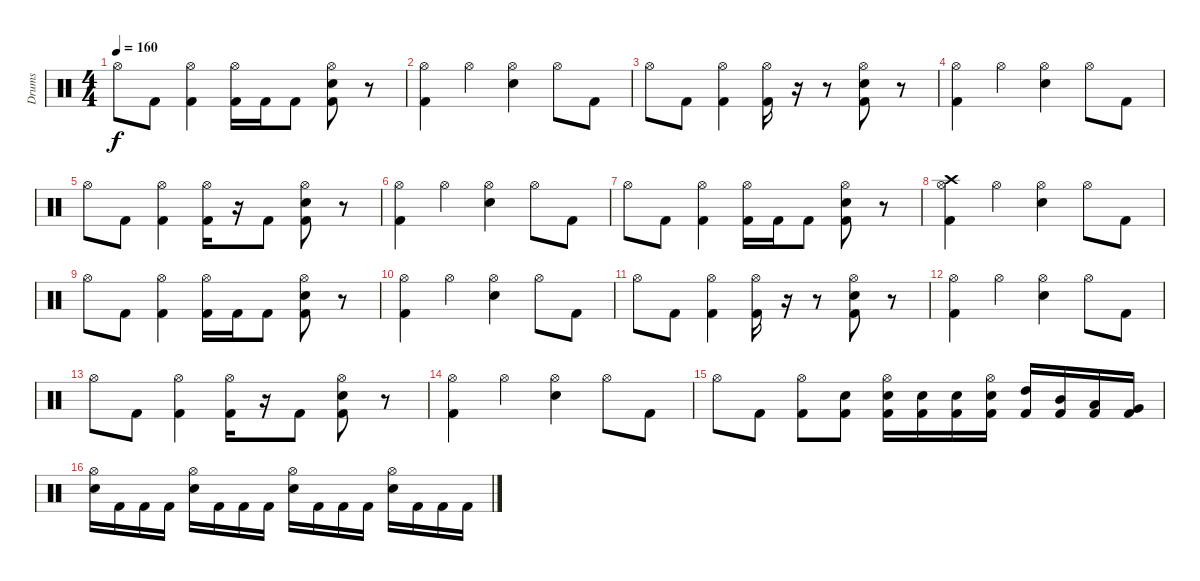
\track ("Drums" "Drums") {instrument percussion}
\staff {score}
\articulation defaults
\ts (4 4)
\tempo 160
\clef neutral
\ks c "Hi-Hat (open)".8{dy f} "Kick (hit) 2".8
("Hi-Hat (open)" "Kick (hit) 2").4 ("Hi-Hat (open)" "Kick (hit) 2").16 "Kick (hit) 2".16 "Kick (hit) 2".8 ("Hi-Hat (open)" "Kick (hit) 2" "Electric Snare (hit)").8 r.8 |
("Hi-Hat (open)" "Kick (hit) 2").4 "Hi-Hat (open)".4 ("Hi-Hat (open)" "Electric Snare (hit)").4 "Hi-Hat (open)".8 "Kick (hit) 2".8 |
"Hi-Hat (open)".8 "Kick (hit) 2".8 ("Hi-Hat (open)" "Kick (hit) 2").4 ("Hi-Hat (open)" "Kick (hit) 2").16 r.16 r.8 ("Hi-Hat (open)" "Kick (hit) 2" "Electric Snare (hit)").8 r.8 |
("Hi-Hat (open)" "Kick (hit) 2").4 "Hi-Hat (open)".4 ("Hi-Hat (open)" "Electric Snare (hit)").4 "Hi-Hat (open)".8 "Kick (hit) 2".8 |
"Hi-Hat (open)".8 "Kick (hit) 2".8 ("Hi-Hat (open)" "Kick (hit) 2").4 ("Hi-Hat (open)" "Kick (hit) 2").16 r.16 "Kick (hit) 2".8 ("Hi-Hat (open)" "Kick (hit) 2" "Electric Snare (hit)").8 r.8 |
("Hi-Hat (open)" "Kick (hit) 2").4 "Hi-Hat (open)".4 ("Hi-Hat (open)" "Electric Snare (hit)").4 "Hi-Hat (open)".8 "Kick (hit) 2".8 |
"Hi-Hat (open)".8 "Kick (hit) 2".8 ("Hi-Hat (open)" "Kick (hit) 2").4 ("Hi-Hat (open)" "Kick (hit) 2").16 "Kick (hit) 2".16 "Kick (hit) 2".8 ("Hi-Hat (open)" "Kick (hit) 2" "Electric Snare (hit)").8 r.8 |
("Crash high (hit)" "Hi-Hat (open)" "Kick (hit) 2").4 "Hi-Hat (open)".4 ("Hi-Hat (open)" "Electric Snare (hit)").4 "Hi-Hat (open)".8 "Kick (hit) 2".8 |
"Hi-Hat (open)".8 "Kick (hit) 2".8 ("Hi-Hat (open)" "Kick (hit) 2").4 ("Hi-Hat (open)" "Kick (hit) 2").16 "Kick (hit) 2".16 "Kick (hit) 2".8 ("Hi-Hat (open)" "Kick (hit) 2" "Electric Snare (hit)").8 r.8 |
("Hi-Hat (open)" "Kick (hit) 2").4 "Hi-Hat (open)".4 ("Hi-Hat (open)" "Electric Snare (hit)").4 "Hi-Hat (open)".8 "Kick (hit) 2".8 |
"Hi-Hat (open)".8 "Kick (hit) 2".8 ("Hi-Hat (open)" "Kick (hit) 2").4 ("Hi-Hat (open)" "Kick (hit) 2").16 r.16 r.8 ("Hi-Hat (open)" "Kick (hit) 2" "Electric Snare (hit)").8 r.8 |
("Hi-Hat (open)" "Kick (hit) 2").4 "Hi-Hat (open)".4 ("Hi-Hat (open)" "Electric Snare (hit)").4 "Hi-Hat (open)".8 "Kick (hit) 2".8 |
"Hi-Hat (open)".8 "Kick (hit) 2".8 ("Hi-Hat (open)" "Kick (hit) 2").4 ("Hi-Hat (open)" "Kick (hit) 2").16 r.16 "Kick (hit) 2".8 ("Hi-Hat (open)" "Kick (hit) 2" "Electric Snare (hit)").8 r.8 |
("Hi-Hat (open)" "Kick (hit) 2").4 "Hi-Hat (open)".4 ("Hi-Hat (open)" "Electric Snare (hit)").4 "Hi-Hat (open)".8 "Kick (hit) 2".8 |
"Hi-Hat (open)".8 "Kick (hit) 2".8 ("Hi-Hat (open)" "Kick (hit) 2").8 ("Electric Snare (hit)" "Kick (hit) 2").8 ("Hi-Hat (open)" "Electric Snare (hit)" "Kick (hit) 2").16 ("Electric Snare (hit)" "Kick (hit) 2").16 ("Electric Snare (hit)" "Kick (hit) 2").16 ("Hi-Hat (open)" "Electric Snare (hit)" "Kick (hit) 2").16 ("High Tom (hit)" "Kick (hit) 2").16 ("Mid Tom (hit)" "Kick (hit) 2").16 ("Low Tom (hit)" "Kick (hit) 2").16 ("Very Low Tom (hit)" "Kick (hit) 2").16 |
("Hi-Hat (open)" "Electric Snare (hit)").16 "Kick (hit) 2".16 "Kick (hit) 2".16 "Kick (hit) 2".16 ("Hi-Hat (open)" "Electric Snare (hit)").16 "Kick (hit) 2".16 "Kick (hit) 2".16 "Kick (hit) 2".16 ("Hi-Hat (open)" "Electric Snare (hit)").16 "Kick (hit) 2".16 "Kick (hit) 2".16 "Kick (hit) 2".16 ("Hi-Hat (open)" "Electric Snare (hit)").16 "Kick (hit) 2".16 "Kick (hit) 2".16 "Kick (hit) 2".16
